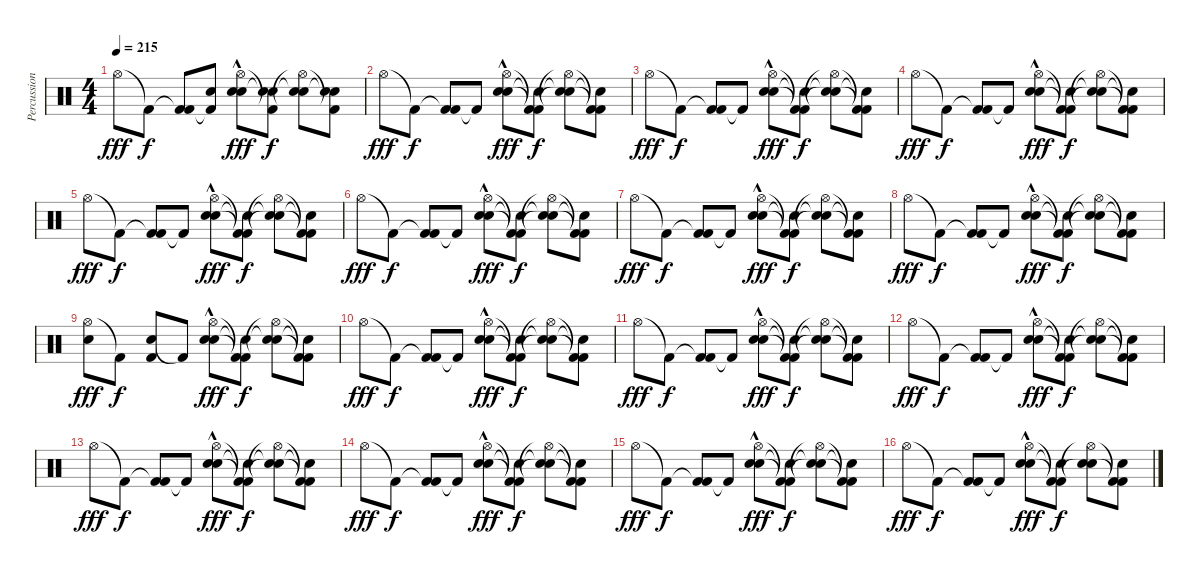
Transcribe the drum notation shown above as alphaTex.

\track ("Percussion" "Percussion") {instrument percussion}
\staff {score}
\articulation defaults
\ts (4 4)
\tempo 215
\clef neutral
\ks c "Hi-Hat (open)".8{dy fff} "Kick (hit) 2"{t}.8{dy f}
("Kick (hit) 2"{t} "Kick (hit) 2").8 ("Kick (hit) 2"{t} "Electric Snare (hit)").8 ("Snare (hit) 2"{hac} "Hi-Hat (open)"{hac} "Electric Snare (hit)").8{dy fff} ("Snare (hit) 2" "Kick (hit) 2"{t} "Snare (hit)"{t}).8{dy f} ("Electric Snare (hit)" "Hi-Hat (open)"{t} "Snare (hit)"{t}).8 ("Electric Snare (hit)" "Kick (hit) 2"{t} "Snare (hit)"{t}).8 |
"Hi-Hat (open)".8{dy fff} "Kick (hit) 2"{t}.8{dy f} ("Kick (hit) 2"{t} "Kick (hit) 2").8 "Kick (hit) 2"{t}.8 ("Snare (hit) 2"{hac} "Hi-Hat (open)"{hac} "Electric Snare (hit)").8{dy fff} ("Kick (hit) 2"{t} "Kick (hit) 2"{t} "Snare (hit)"{t}).8{dy f} ("Snare (hit)"{t} "Hi-Hat (open)"{t} "Snare (hit)"{t}).8 ("Kick (hit) 2"{t} "Kick (hit) 2"{t} "Snare (hit)"{t}).8 |
"Hi-Hat (open)".8{dy fff} "Kick (hit) 2"{t}.8{dy f} ("Kick (hit) 2"{t} "Kick (hit) 2").8 "Kick (hit) 2"{t}.8 ("Snare (hit) 2"{hac} "Hi-Hat (open)"{hac} "Electric Snare (hit)").8{dy fff} ("Kick (hit) 2"{t} "Kick (hit) 2"{t} "Snare (hit)"{t}).8{dy f} ("Snare (hit)"{t} "Hi-Hat (open)"{t} "Snare (hit)"{t}).8 ("Kick (hit) 2"{t} "Kick (hit) 2"{t} "Snare (hit)"{t}).8 |
"Hi-Hat (open)".8{dy fff} "Kick (hit) 2"{t}.8{dy f} ("Kick (hit) 2"{t} "Kick (hit) 2").8 "Kick (hit) 2"{t}.8 ("Snare (hit) 2"{hac} "Hi-Hat (open)"{hac} "Electric Snare (hit)").8{dy fff} ("Kick (hit) 2"{t} "Kick (hit) 2"{t} "Snare (hit)"{t}).8{dy f} ("Snare (hit)"{t} "Hi-Hat (open)"{t} "Snare (hit)"{t}).8 ("Kick (hit) 2"{t} "Kick (hit) 2"{t} "Snare (hit)"{t}).8 |
"Hi-Hat (open)".8{dy fff} "Kick (hit) 2"{t}.8{dy f} ("Kick (hit) 2"{t} "Kick (hit) 2").8 "Kick (hit) 2"{t}.8 ("Snare (hit) 2"{hac} "Hi-Hat (open)"{hac} "Electric Snare (hit)").8{dy fff} ("Kick (hit) 2"{t} "Kick (hit) 2"{t} "Snare (hit)"{t}).8{dy f} ("Snare (hit)"{t} "Hi-Hat (open)"{t} "Snare (hit)"{t}).8 ("Kick (hit) 2"{t} "Kick (hit) 2"{t} "Snare (hit)"{t}).8 |
"Hi-Hat (open)".8{dy fff} "Kick (hit) 2"{t}.8{dy f} ("Kick (hit) 2"{t} "Kick (hit) 2").8 "Kick (hit) 2"{t}.8 ("Snare (hit) 2"{hac} "Hi-Hat (open)"{hac} "Electric Snare (hit)").8{dy fff} ("Kick (hit) 2"{t} "Kick (hit) 2"{t} "Snare (hit)"{t}).8{dy f} ("Snare (hit)"{t} "Hi-Hat (open)"{t} "Snare (hit)"{t}).8 ("Kick (hit) 2"{t} "Kick (hit) 2"{t} "Snare (hit)"{t}).8 |
"Hi-Hat (open)".8{dy fff} "Kick (hit) 2"{t}.8{dy f} ("Kick (hit) 2"{t} "Kick (hit) 2").8 "Kick (hit) 2"{t}.8 ("Snare (hit) 2"{hac} "Hi-Hat (open)"{hac} "Electric Snare (hit)").8{dy fff} ("Kick (hit) 2"{t} "Kick (hit) 2"{t} "Snare (hit)"{t}).8{dy f} ("Snare (hit)"{t} "Hi-Hat (open)"{t} "Snare (hit)"{t}).8 ("Kick (hit) 2"{t} "Kick (hit) 2"{t} "Snare (hit)"{t}).8 |
"Hi-Hat (open)".8{dy fff} "Kick (hit) 2"{t}.8{dy f} ("Kick (hit) 2"{t} "Kick (hit) 2").8 "Kick (hit) 2"{t}.8 ("Snare (hit) 2"{hac} "Hi-Hat (open)"{hac} "Electric Snare (hit)").8{dy fff} ("Kick (hit) 2"{t} "Kick (hit) 2"{t} "Snare (hit)"{t}).8{dy f} ("Snare (hit)"{t} "Hi-Hat (open)"{t} "Snare (hit)"{t}).8 ("Kick (hit) 2"{t} "Kick (hit) 2"{t} "Snare (hit)"{t}).8 |
("Hi-Hat (open)" "Electric Snare (hit)").8{dy fff} "Kick (hit) 2"{t}.8{dy f} ("Electric Snare (hit)" "Kick (hit) 2").8 "Kick (hit) 2"{t}.8 ("Snare (hit) 2"{hac} "Hi-Hat (open)"{hac} "Electric Snare (hit)").8{dy fff} ("Kick (hit) 2"{t} "Kick (hit) 2"{t} "Snare (hit)"{t}).8{dy f} ("Electric Snare (hit)" "Hi-Hat (open)"{t} "Snare (hit)"{t}).8 ("Kick (hit) 2"{t} "Kick (hit) 2"{t} "Snare (hit)"{t}).8 |
"Hi-Hat (open)".8{dy fff} "Kick (hit) 2"{t}.8{dy f} ("Kick (hit) 2"{t} "Kick (hit) 2").8 "Kick (hit) 2"{t}.8 ("Snare (hit) 2"{hac} "Hi-Hat (open)"{hac} "Electric Snare (hit)").8{dy fff} ("Kick (hit) 2"{t} "Kick (hit) 2"{t} "Snare (hit)"{t}).8{dy f} ("Snare (hit)"{t} "Hi-Hat (open)"{t} "Snare (hit)"{t}).8 ("Kick (hit) 2"{t} "Kick (hit) 2"{t} "Snare (hit)"{t}).8 |
"Hi-Hat (open)".8{dy fff} "Kick (hit) 2"{t}.8{dy f} ("Kick (hit) 2"{t} "Kick (hit) 2").8 "Kick (hit) 2"{t}.8 ("Snare (hit) 2"{hac} "Hi-Hat (open)"{hac} "Electric Snare (hit)").8{dy fff} ("Kick (hit) 2"{t} "Kick (hit) 2"{t} "Snare (hit)"{t}).8{dy f} ("Snare (hit)"{t} "Hi-Hat (open)"{t} "Snare (hit)"{t}).8 ("Kick (hit) 2"{t} "Kick (hit) 2"{t} "Snare (hit)"{t}).8 |
"Hi-Hat (open)".8{dy fff} "Kick (hit) 2"{t}.8{dy f} ("Kick (hit) 2"{t} "Kick (hit) 2").8 "Kick (hit) 2"{t}.8 ("Snare (hit) 2"{hac} "Hi-Hat (open)"{hac} "Electric Snare (hit)").8{dy fff} ("Kick (hit) 2"{t} "Kick (hit) 2"{t} "Snare (hit)"{t}).8{dy f} ("Snare (hit)"{t} "Hi-Hat (open)"{t} "Snare (hit)"{t}).8 ("Kick (hit) 2"{t} "Kick (hit) 2"{t} "Snare (hit)"{t}).8 |
"Hi-Hat (open)".8{dy fff} "Kick (hit) 2"{t}.8{dy f} ("Kick (hit) 2"{t} "Kick (hit) 2").8 "Kick (hit) 2"{t}.8 ("Snare (hit) 2"{hac} "Hi-Hat (open)"{hac} "Electric Snare (hit)").8{dy fff} ("Kick (hit) 2"{t} "Kick (hit) 2"{t} "Snare (hit)"{t}).8{dy f} ("Snare (hit)"{t} "Hi-Hat (open)"{t} "Snare (hit)"{t}).8 ("Kick (hit) 2"{t} "Kick (hit) 2"{t} "Snare (hit)"{t}).8 |
"Hi-Hat (open)".8{dy fff} "Kick (hit) 2"{t}.8{dy f} ("Kick (hit) 2"{t} "Kick (hit) 2").8 "Kick (hit) 2"{t}.8 ("Snare (hit) 2"{hac} "Hi-Hat (open)"{hac} "Electric Snare (hit)").8{dy fff} ("Kick (hit) 2"{t} "Kick (hit) 2"{t} "Snare (hit)"{t}).8{dy f} ("Snare (hit)"{t} "Hi-Hat (open)"{t} "Snare (hit)"{t}).8 ("Kick (hit) 2"{t} "Kick (hit) 2"{t} "Snare (hit)"{t}).8 |
"Hi-Hat (open)".8{dy fff} "Kick (hit) 2"{t}.8{dy f} ("Kick (hit) 2"{t} "Kick (hit) 2").8 "Kick (hit) 2"{t}.8 ("Snare (hit) 2"{hac} "Hi-Hat (open)"{hac} "Electric Snare (hit)").8{dy fff} ("Kick (hit) 2"{t} "Kick (hit) 2"{t} "Snare (hit)"{t}).8{dy f} ("Snare (hit)"{t} "Hi-Hat (open)"{t} "Snare (hit)"{t}).8 ("Kick (hit) 2"{t} "Kick (hit) 2"{t} "Snare (hit)"{t}).8 |
"Hi-Hat (open)".8{dy fff} "Kick (hit) 2"{t}.8{dy f} ("Kick (hit) 2"{t} "Kick (hit) 2").8 "Kick (hit) 2"{t}.8 ("Snare (hit) 2"{hac} "Hi-Hat (open)"{hac} "Electric Snare (hit)").8{dy fff} ("Kick (hit) 2"{t} "Kick (hit) 2"{t} "Snare (hit)"{t}).8{dy f} ("Snare (hit)"{t} "Hi-Hat (open)"{t} "Electric Snare (hit)").8 ("Kick (hit) 2"{t} "Kick (hit) 2"{t} "Electric Snare (hit)").8
